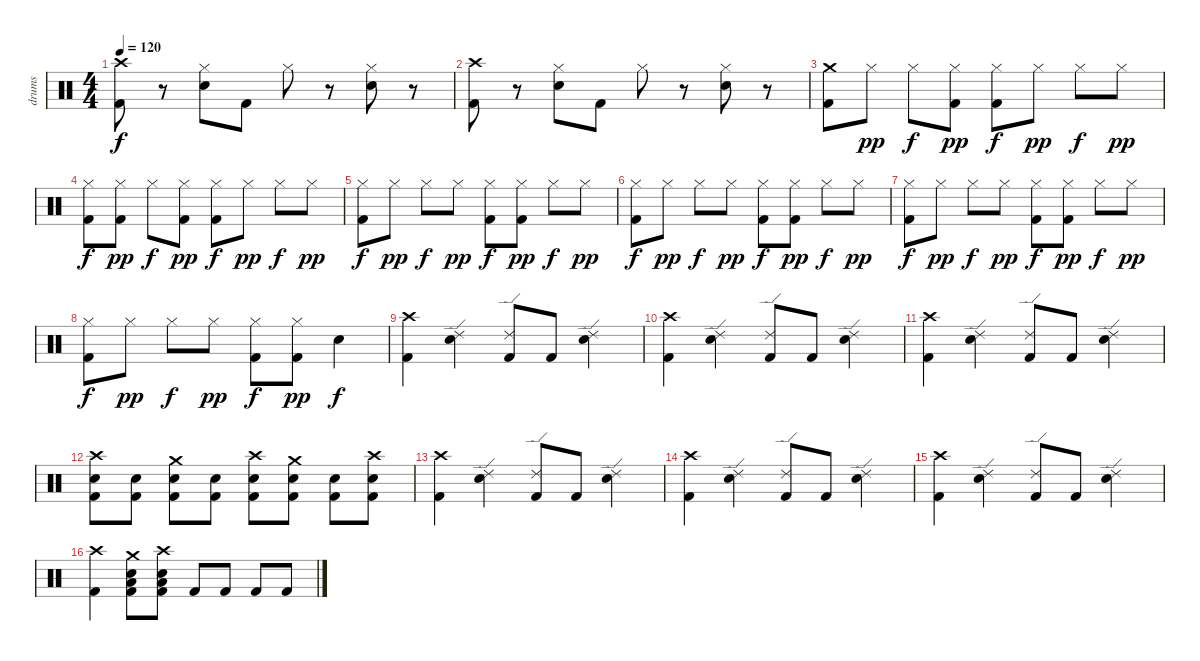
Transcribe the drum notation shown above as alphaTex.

\track ("drums" "drums") {instrument percussion}
\staff {score}
\articulation defaults
\ts (4 4)
\tempo 120
\clef neutral
\ks c
("Crash high (hit)" "Kick (hit) 2").8{dy f} r.8 ("Hi-Hat (closed)" "Snare (hit) 2").8 "Kick (hit) 2".8 "Hi-Hat (closed)".8 r.8 ("Hi-Hat (closed)" "Snare (hit) 2").8 r.8 |
("Crash high (hit)" "Kick (hit) 2").8 r.8 ("Hi-Hat (closed)" "Snare (hit) 2").8 "Kick (hit) 2".8 "Hi-Hat (closed)".8 r.8 ("Hi-Hat (closed)" "Snare (hit) 2").8 r.8 |
("Crash medium (hit)" "Kick (hit) 2").8 "Hi-Hat (closed)".8{dy pp} "Hi-Hat (closed)".8{dy f} ("Hi-Hat (closed)" "Kick (hit) 2").8{dy pp} ("Hi-Hat (closed)" "Kick (hit) 2").8{dy f} "Hi-Hat (closed)".8{dy pp} "Hi-Hat (closed)".8{dy f} "Hi-Hat (closed)".8{dy pp} |
("Hi-Hat (closed)" "Kick (hit) 2").8{dy f} ("Hi-Hat (closed)" "Kick (hit) 2").8{dy pp} "Hi-Hat (closed)".8{dy f} ("Hi-Hat (closed)" "Kick (hit) 2").8{dy pp} ("Hi-Hat (closed)" "Kick (hit) 2").8{dy f} "Hi-Hat (closed)".8{dy pp} "Hi-Hat (closed)".8{dy f} "Hi-Hat (closed)".8{dy pp} |
("Hi-Hat (closed)" "Kick (hit) 2").8{dy f} "Hi-Hat (closed)".8{dy pp} "Hi-Hat (closed)".8{dy f} "Hi-Hat (closed)".8{dy pp} ("Hi-Hat (closed)" "Kick (hit) 2").8{dy f} ("Hi-Hat (closed)" "Kick (hit) 2").8{dy pp} "Hi-Hat (closed)".8{dy f} "Hi-Hat (closed)".8{dy pp} |
("Hi-Hat (closed)" "Kick (hit) 2").8{dy f} "Hi-Hat (closed)".8{dy pp} "Hi-Hat (closed)".8{dy f} "Hi-Hat (closed)".8{dy pp} ("Hi-Hat (closed)" "Kick (hit) 2").8{dy f} ("Hi-Hat (closed)" "Kick (hit) 2").8{dy pp} "Hi-Hat (closed)".8{dy f} "Hi-Hat (closed)".8{dy pp} |
("Hi-Hat (closed)" "Kick (hit) 2").8{dy f} "Hi-Hat (closed)".8{dy pp} "Hi-Hat (closed)".8{dy f} "Hi-Hat (closed)".8{dy pp} ("Hi-Hat (closed)" "Kick (hit) 2").8{dy f} ("Hi-Hat (closed)" "Kick (hit) 2").8{dy pp} "Hi-Hat (closed)".8{dy f} "Hi-Hat (closed)".8{dy pp} |
("Hi-Hat (closed)" "Kick (hit) 2").8{dy f} "Hi-Hat (closed)".8{dy pp} "Hi-Hat (closed)".8{dy f} "Hi-Hat (closed)".8{dy pp} ("Hi-Hat (closed)" "Kick (hit) 2").8{dy f} ("Hi-Hat (closed)" "Kick (hit) 2").8{dy pp} "Snare (hit) 2".4{dy f} |
("Crash high (hit)" "Kick (hit) 2").4 ("Ride (edge) 2" "Snare (hit) 2").4 ("Ride (edge) 2" "Kick (hit) 2").8 "Kick (hit) 2".8 ("Ride (edge) 2" "Snare (hit) 2").4 |
("Crash high (hit)" "Kick (hit) 2").4 ("Ride (edge) 2" "Snare (hit) 2").4 ("Ride (edge) 2" "Kick (hit) 2").8 "Kick (hit) 2".8 ("Ride (edge) 2" "Snare (hit) 2").4 |
("Crash high (hit)" "Kick (hit) 2").4 ("Ride (edge) 2" "Snare (hit) 2").4 ("Ride (edge) 2" "Kick (hit) 2").8 "Kick (hit) 2".8 ("Ride (edge) 2" "Snare (hit) 2").4 |
("Snare (hit) 2" "Crash high (hit)" "Kick (hit) 2").8 ("Snare (hit) 2" "Kick (hit) 2").8 ("Snare (hit) 2" "Crash medium (hit)" "Kick (hit) 2").8 ("Snare (hit) 2" "Kick (hit) 2").8 ("Snare (hit) 2" "Crash high (hit)" "Kick (hit) 2").8 ("Snare (hit) 2" "Crash medium (hit)" "Kick (hit) 2").8 ("Snare (hit) 2" "Kick (hit) 2").8 ("Snare (hit) 2" "Crash high (hit)" "Kick (hit) 2").8 |
("Crash high (hit)" "Kick (hit) 2").4 ("Ride (edge) 2" "Snare (hit) 2").4 ("Ride (edge) 2" "Kick (hit) 2").8 "Kick (hit) 2".8 ("Ride (edge) 2" "Snare (hit) 2").4 |
("Crash high (hit)" "Kick (hit) 2").4 ("Ride (edge) 2" "Snare (hit) 2").4 ("Ride (edge) 2" "Kick (hit) 2").8 "Kick (hit) 2".8 ("Ride (edge) 2" "Snare (hit) 2").4 |
("Crash high (hit)" "Kick (hit) 2").4 ("Ride (edge) 2" "Snare (hit) 2").4 ("Ride (edge) 2" "Kick (hit) 2").8 "Kick (hit) 2".8 ("Ride (edge) 2" "Snare (hit) 2").4 |
("Crash high (hit)" "Kick (hit) 2").4 ("Crash medium (hit)" "Low Floor Tom (hit)" "Snare (hit) 2" "Kick (hit) 2").8 ("Crash high (hit)" "Low Floor Tom (hit)" "Snare (hit) 2" "Kick (hit) 2").8 "Kick (hit) 2".8 "Kick (hit) 2".8 "Kick (hit) 2".8 "Kick (hit) 2".8
